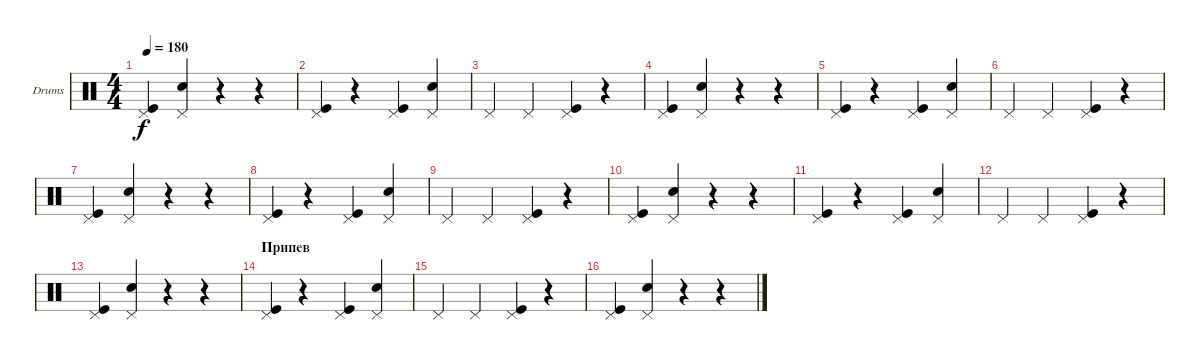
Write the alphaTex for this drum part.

\defaultSystemsLayout 4
\bracketExtendMode groupsimilarinstruments
\firstSystemTrackNameOrientation horizontal
\otherSystemsTrackNameOrientation horizontal
\track ("Георгий Гурьянов" "Drums") {instrument percussion}
\staff {score}
\articulation defaults
\ts (4 4)
\tempo 180
\clef neutral
\ks c
("Pedal Hi-Hat (hit)" "Kick (hit)").4{dy f} ("Pedal Hi-Hat (hit)" "Snare (hit) 2").4 r.4 r.4 |
("Pedal Hi-Hat (hit)" "Kick (hit)").4 r.4 ("Pedal Hi-Hat (hit)" "Kick (hit)").4 ("Pedal Hi-Hat (hit)" "Snare (hit) 2").4 |
"Pedal Hi-Hat (hit)".4 "Pedal Hi-Hat (hit)".4 ("Pedal Hi-Hat (hit)" "Kick (hit)").4 r.4 |
("Pedal Hi-Hat (hit)" "Kick (hit)").4 ("Pedal Hi-Hat (hit)" "Snare (hit) 2").4 r.4 r.4 |
("Pedal Hi-Hat (hit)" "Kick (hit)").4 r.4 ("Pedal Hi-Hat (hit)" "Kick (hit)").4 ("Pedal Hi-Hat (hit)" "Snare (hit) 2").4 |
"Pedal Hi-Hat (hit)".4 "Pedal Hi-Hat (hit)".4 ("Pedal Hi-Hat (hit)" "Kick (hit)").4 r.4 |
("Pedal Hi-Hat (hit)" "Kick (hit)").4 ("Pedal Hi-Hat (hit)" "Snare (hit) 2").4 r.4 r.4 |
("Pedal Hi-Hat (hit)" "Kick (hit)").4 r.4 ("Pedal Hi-Hat (hit)" "Kick (hit)").4 ("Pedal Hi-Hat (hit)" "Snare (hit) 2").4 |
"Pedal Hi-Hat (hit)".4 "Pedal Hi-Hat (hit)".4 ("Pedal Hi-Hat (hit)" "Kick (hit)").4 r.4 |
("Pedal Hi-Hat (hit)" "Kick (hit)").4 ("Pedal Hi-Hat (hit)" "Snare (hit) 2").4 r.4 r.4 |
("Pedal Hi-Hat (hit)" "Kick (hit)").4 r.4 ("Pedal Hi-Hat (hit)" "Kick (hit)").4 ("Pedal Hi-Hat (hit)" "Snare (hit) 2").4 |
"Pedal Hi-Hat (hit)".4 "Pedal Hi-Hat (hit)".4 ("Pedal Hi-Hat (hit)" "Kick (hit)").4 r.4 |
("Pedal Hi-Hat (hit)" "Kick (hit)").4 ("Pedal Hi-Hat (hit)" "Snare (hit) 2").4 r.4 r.4 |
\section ("" "Припев")
("Pedal Hi-Hat (hit)" "Kick (hit)").4 r.4 ("Pedal Hi-Hat (hit)" "Kick (hit)").4 ("Pedal Hi-Hat (hit)" "Snare (hit) 2").4 |
"Pedal Hi-Hat (hit)".4 "Pedal Hi-Hat (hit)".4 ("Pedal Hi-Hat (hit)" "Kick (hit)").4 r.4 |
("Pedal Hi-Hat (hit)" "Kick (hit)").4 ("Pedal Hi-Hat (hit)" "Snare (hit) 2").4 r.4 r.4
